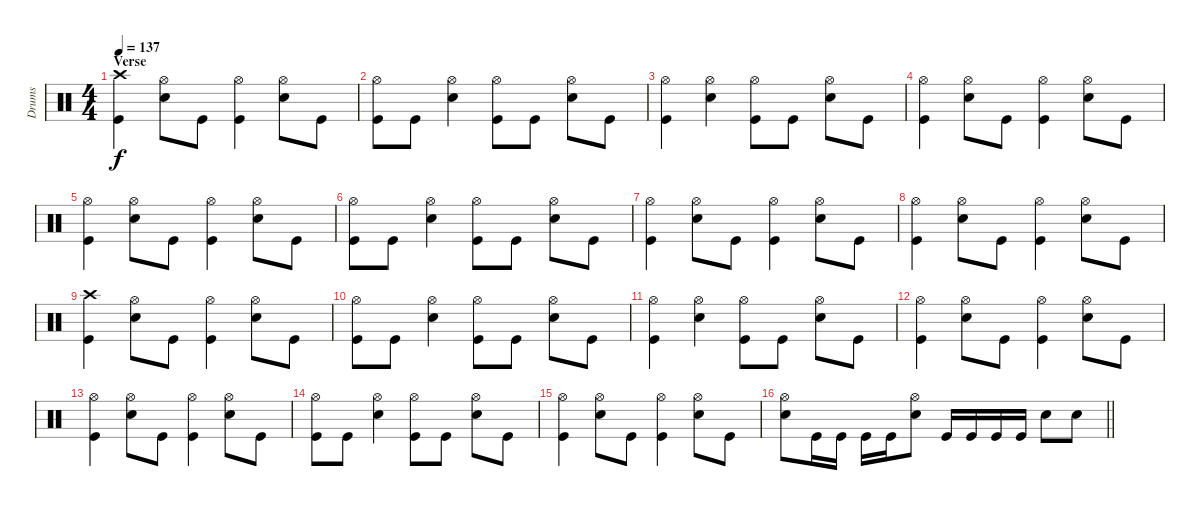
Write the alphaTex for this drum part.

\track ("Drums" "Drums") {instrument percussion}
\staff {score}
\articulation defaults
\ts (4 4)
\section ("" "Verse ")
\tempo 137
\clef neutral
\ks c
("Crash high (hit)" "Kick (hit)").4{dy f} ("Hi-Hat (open)" "Electric Snare (hit)").8 "Kick (hit)".8 ("Hi-Hat (open)" "Kick (hit)").4 ("Hi-Hat (open)" "Electric Snare (hit)").8 "Kick (hit)".8 |
("Hi-Hat (open)" "Kick (hit)").8 "Kick (hit)".8 ("Hi-Hat (open)" "Electric Snare (hit)").4 ("Hi-Hat (open)" "Kick (hit)").8 "Kick (hit)".8 ("Hi-Hat (open)" "Electric Snare (hit)").8 "Kick (hit)".8 |
("Hi-Hat (open)" "Kick (hit)").4 ("Hi-Hat (open)" "Electric Snare (hit)").4 ("Hi-Hat (open)" "Kick (hit)").8 "Kick (hit)".8 ("Hi-Hat (open)" "Electric Snare (hit)").8 "Kick (hit)".8 |
("Hi-Hat (open)" "Kick (hit)").4 ("Hi-Hat (open)" "Electric Snare (hit)").8 "Kick (hit)".8 ("Hi-Hat (open)" "Kick (hit)").4 ("Hi-Hat (open)" "Electric Snare (hit)").8 "Kick (hit)".8 |
("Hi-Hat (open)" "Kick (hit)").4 ("Hi-Hat (open)" "Electric Snare (hit)").8 "Kick (hit)".8 ("Hi-Hat (open)" "Kick (hit)").4 ("Hi-Hat (open)" "Electric Snare (hit)").8 "Kick (hit)".8 |
("Hi-Hat (open)" "Kick (hit)").8 "Kick (hit)".8 ("Hi-Hat (open)" "Electric Snare (hit)").4 ("Hi-Hat (open)" "Kick (hit)").8 "Kick (hit)".8 ("Hi-Hat (open)" "Electric Snare (hit)").8 "Kick (hit)".8 |
("Hi-Hat (open)" "Kick (hit)").4 ("Hi-Hat (open)" "Electric Snare (hit)").8 "Kick (hit)".8 ("Hi-Hat (open)" "Kick (hit)").4 ("Hi-Hat (open)" "Electric Snare (hit)").8 "Kick (hit)".8 |
("Hi-Hat (open)" "Kick (hit)").4 ("Hi-Hat (open)" "Electric Snare (hit)").8 "Kick (hit)".8 ("Hi-Hat (open)" "Kick (hit)").4 ("Hi-Hat (open)" "Electric Snare (hit)").8 "Kick (hit)".8 |
("Crash high (hit)" "Kick (hit)").4 ("Hi-Hat (open)" "Electric Snare (hit)").8 "Kick (hit)".8 ("Hi-Hat (open)" "Kick (hit)").4 ("Hi-Hat (open)" "Electric Snare (hit)").8 "Kick (hit)".8 |
("Hi-Hat (open)" "Kick (hit)").8 "Kick (hit)".8 ("Hi-Hat (open)" "Electric Snare (hit)").4 ("Hi-Hat (open)" "Kick (hit)").8 "Kick (hit)".8 ("Hi-Hat (open)" "Electric Snare (hit)").8 "Kick (hit)".8 |
("Hi-Hat (open)" "Kick (hit)").4 ("Hi-Hat (open)" "Electric Snare (hit)").4 ("Hi-Hat (open)" "Kick (hit)").8 "Kick (hit)".8 ("Hi-Hat (open)" "Electric Snare (hit)").8 "Kick (hit)".8 |
("Hi-Hat (open)" "Kick (hit)").4 ("Hi-Hat (open)" "Electric Snare (hit)").8 "Kick (hit)".8 ("Hi-Hat (open)" "Kick (hit)").4 ("Hi-Hat (open)" "Electric Snare (hit)").8 "Kick (hit)".8 |
("Hi-Hat (open)" "Kick (hit)").4 ("Hi-Hat (open)" "Electric Snare (hit)").8 "Kick (hit)".8 ("Hi-Hat (open)" "Kick (hit)").4 ("Hi-Hat (open)" "Electric Snare (hit)").8 "Kick (hit)".8 |
("Hi-Hat (open)" "Kick (hit)").8 "Kick (hit)".8 ("Hi-Hat (open)" "Electric Snare (hit)").4 ("Hi-Hat (open)" "Kick (hit)").8 "Kick (hit)".8 ("Hi-Hat (open)" "Electric Snare (hit)").8 "Kick (hit)".8 |
("Hi-Hat (open)" "Kick (hit)").4 ("Hi-Hat (open)" "Electric Snare (hit)").8 "Kick (hit)".8 ("Hi-Hat (open)" "Kick (hit)").4 ("Hi-Hat (open)" "Electric Snare (hit)").8 "Kick (hit)".8 |
\barLineRight lightlight
("Hi-Hat (open)" "Electric Snare (hit)").8 "Kick (hit)".16 "Kick (hit)".16 "Kick (hit)".16 "Kick (hit)".16 ("Hi-Hat (open)" "Electric Snare (hit)").8 "Kick (hit)".16 "Kick (hit)".16 "Kick (hit)".16 "Kick (hit)".16 "Electric Snare (hit)".8 "Electric Snare (hit)".8
